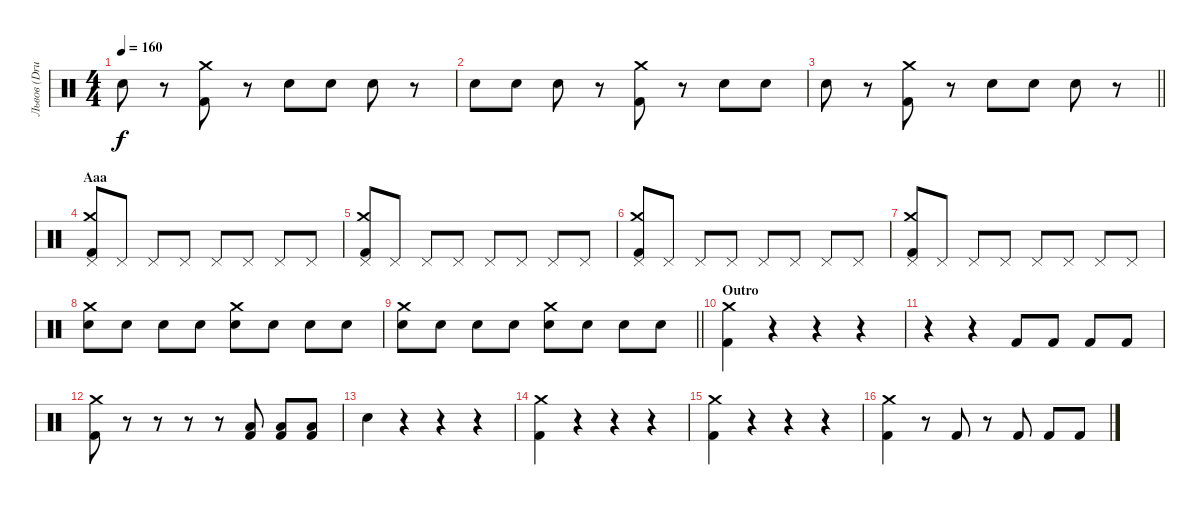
\track ("Львов (Drums)" "Львов (Dru") {instrument percussion}
\staff {score}
\articulation defaults
\ts (4 4)
\tempo 160
\clef neutral
\ks c "Electric Snare (hit)".8{dy f}
r.8 ("Kick (hit) 2" "Crash medium (hit)").8 r.8 "Electric Snare (hit)".8 "Electric Snare (hit)".8 "Electric Snare (hit)".8 r.8 |
"Electric Snare (hit)".8 "Electric Snare (hit)".8 "Electric Snare (hit)".8 r.8 ("Kick (hit) 2" "Crash medium (hit)").8 r.8 "Electric Snare (hit)".8 "Electric Snare (hit)".8 |
\barLineRight lightlight "Electric Snare (hit)".8
r.8 ("Kick (hit) 2" "Crash medium (hit)").8 r.8 "Electric Snare (hit)".8 "Electric Snare (hit)".8 "Electric Snare (hit)".8 r.8 |
\section ("" "Aaa")
("Pedal Hi-Hat (hit)" "Kick (hit) 2" "Crash medium (hit)").8 "Pedal Hi-Hat (hit)".8 "Pedal Hi-Hat (hit)".8 "Pedal Hi-Hat (hit)".8 "Pedal Hi-Hat (hit)".8 "Pedal Hi-Hat (hit)".8 "Pedal Hi-Hat (hit)".8 "Pedal Hi-Hat (hit)".8 |
("Pedal Hi-Hat (hit)" "Kick (hit) 2" "Crash medium (hit)").8 "Pedal Hi-Hat (hit)".8 "Pedal Hi-Hat (hit)".8 "Pedal Hi-Hat (hit)".8 "Pedal Hi-Hat (hit)".8 "Pedal Hi-Hat (hit)".8 "Pedal Hi-Hat (hit)".8 "Pedal Hi-Hat (hit)".8 |
("Pedal Hi-Hat (hit)" "Kick (hit) 2" "Crash medium (hit)").8 "Pedal Hi-Hat (hit)".8 "Pedal Hi-Hat (hit)".8 "Pedal Hi-Hat (hit)".8 "Pedal Hi-Hat (hit)".8 "Pedal Hi-Hat (hit)".8 "Pedal Hi-Hat (hit)".8 "Pedal Hi-Hat (hit)".8 |
("Pedal Hi-Hat (hit)" "Kick (hit) 2" "Crash medium (hit)").8 "Pedal Hi-Hat (hit)".8 "Pedal Hi-Hat (hit)".8 "Pedal Hi-Hat (hit)".8 "Pedal Hi-Hat (hit)".8 "Pedal Hi-Hat (hit)".8 "Pedal Hi-Hat (hit)".8 "Pedal Hi-Hat (hit)".8 |
("Snare (hit) 2" "Crash medium (hit)").8 "Snare (hit) 2".8 "Snare (hit) 2".8 "Snare (hit) 2".8 ("Snare (hit) 2" "Crash medium (hit)").8 "Snare (hit) 2".8 "Snare (hit) 2".8 "Snare (hit) 2".8 |
\barLineRight lightlight
("Snare (hit) 2" "Crash medium (hit)").8 "Snare (hit) 2".8 "Snare (hit) 2".8 "Snare (hit) 2".8 ("Snare (hit) 2" "Crash medium (hit)").8 "Snare (hit) 2".8 "Snare (hit) 2".8 "Snare (hit) 2".8 |
\section ("" "Outro")
("Kick (hit) 2" "Crash medium (hit)").4 r.4 r.4 r.4 |
r.4 r.4 "Kick (hit) 2".8 "Kick (hit) 2".8 "Kick (hit) 2".8 "Kick (hit) 2".8 |
("Kick (hit) 2" "Crash medium (hit)").8 r.8 r.8 r.8 r.8 ("Kick (hit) 2" "Low Floor Tom (hit)").8 ("Kick (hit) 2" "Low Floor Tom (hit)").8 ("Kick (hit) 2" "Low Floor Tom (hit)").8 |
"Snare (hit) 2".4 r.4 r.4 r.4 |
("Kick (hit) 2" "Crash medium (hit)").4 r.4 r.4 r.4 |
("Kick (hit) 2" "Crash medium (hit)").4 r.4 r.4 r.4 |
("Kick (hit) 2" "Crash medium (hit)").4 r.8 "Kick (hit) 2".8 r.8 "Kick (hit) 2".8 "Kick (hit) 2".8 "Kick (hit) 2".8
